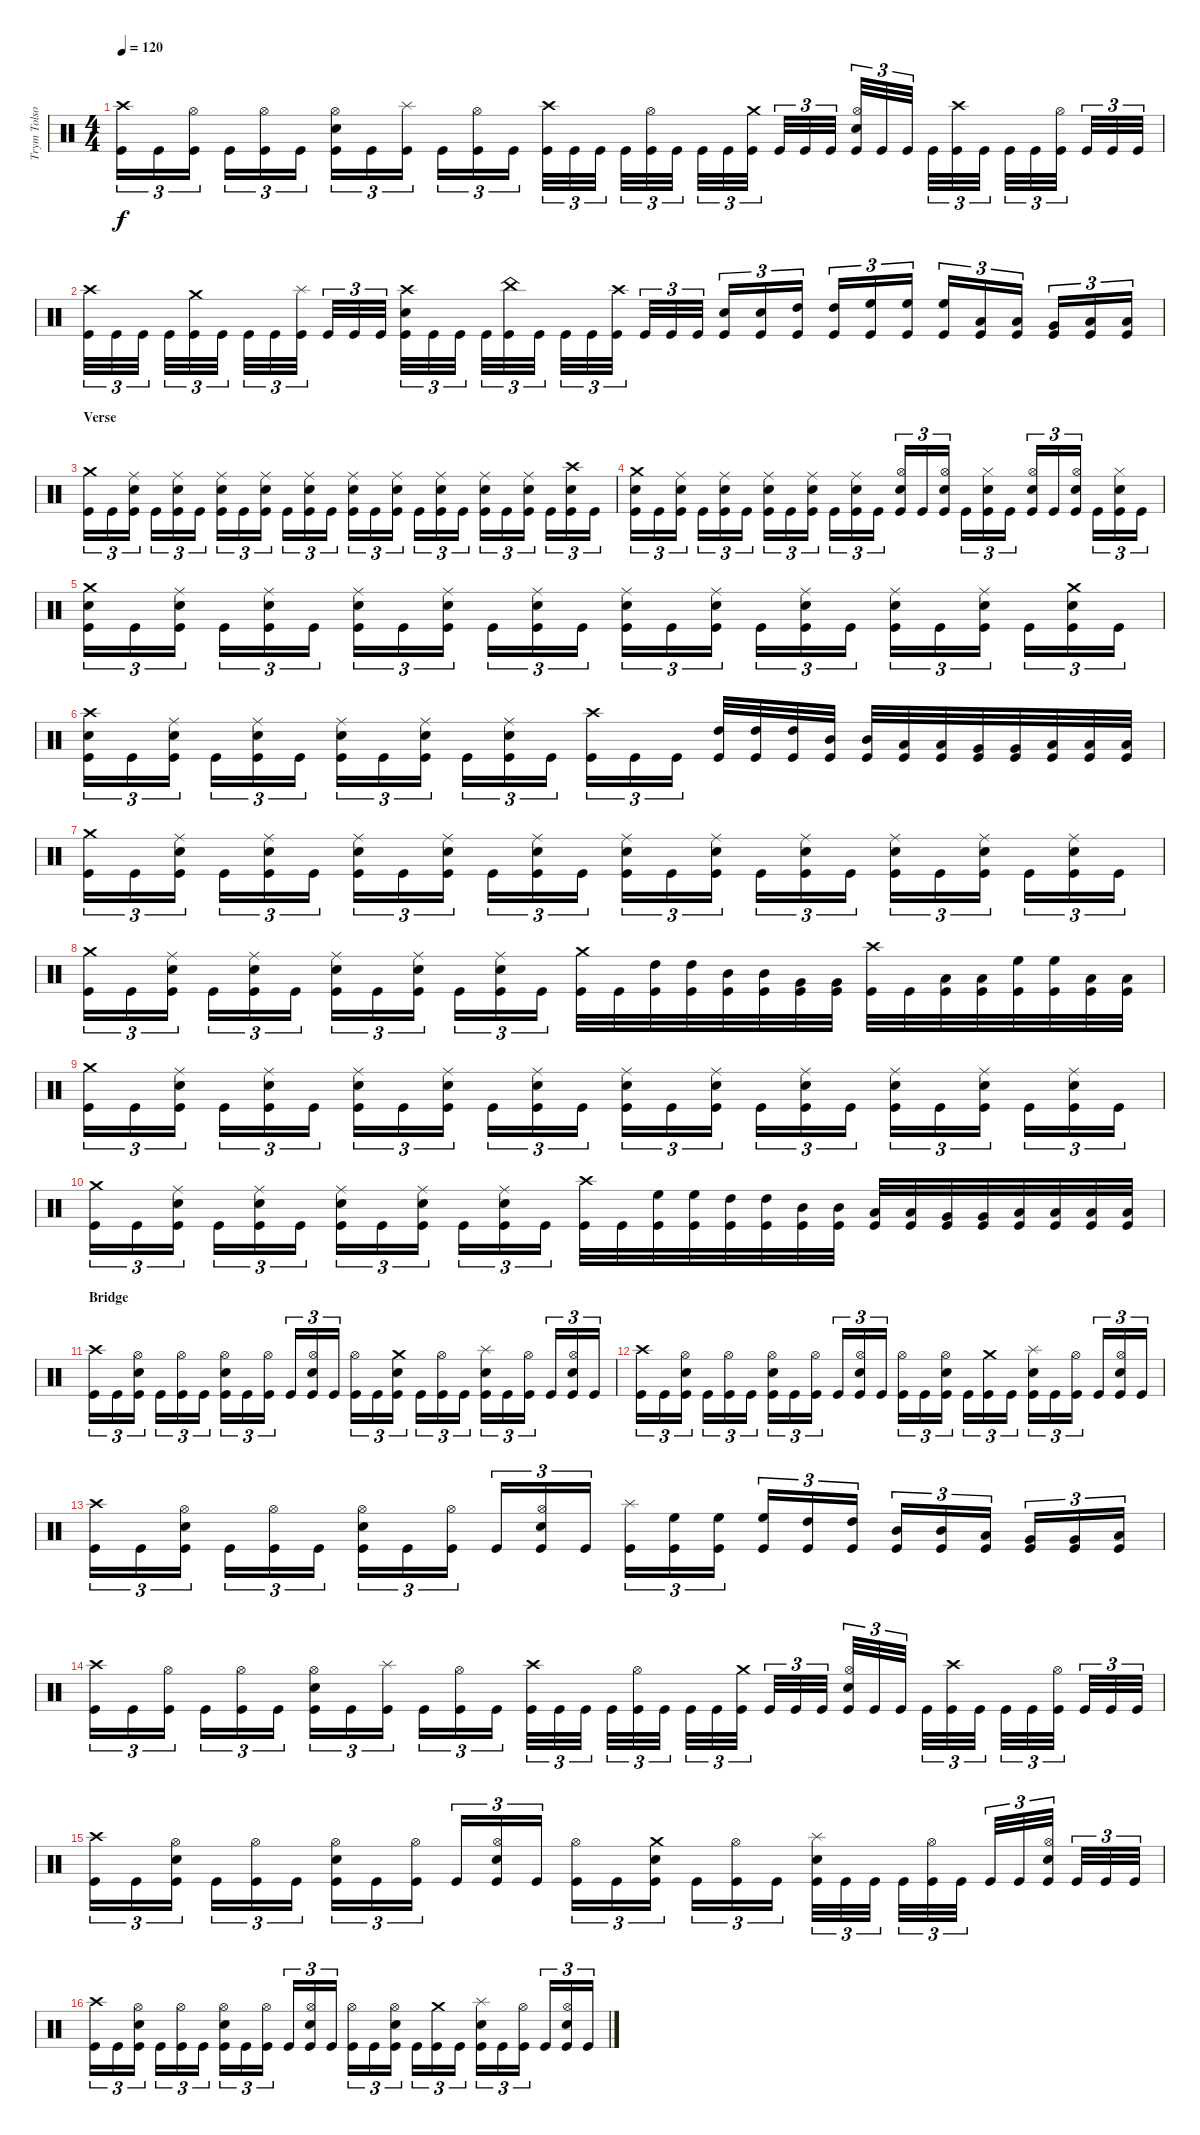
\track ("Trym Tolson" "Trym Tolso") {instrument percussion}
\staff {score}
\articulation defaults
\ts (4 4)
\tempo 120
\clef neutral
\ks c
("Crash high (hit)" "Kick (hit)").16{tu (3 2) dy f} "Kick (hit)".16{tu (3 2)} ("Hi-Hat (open)" "Kick (hit)").16{tu (3 2)} "Kick (hit)".16{tu (3 2)} ("Hi-Hat (open)" "Kick (hit)").16{tu (3 2)} "Kick (hit)".16{tu (3 2)} ("Hi-Hat (open)" "Electric Snare (hit)" "Kick (hit)").16{tu (3 2)} "Kick (hit)".16{tu (3 2)} ("Splash (hit)" "Kick (hit)").16{tu (3 2)} "Kick (hit)".16{tu (3 2)} ("Hi-Hat (open)" "Kick (hit)").16{tu (3 2)} "Kick (hit)".16{tu (3 2)} ("Crash high (hit)" "Kick (hit)").32{tu (3 2)} "Kick (hit)".32{tu (3 2)} "Kick (hit)".32{tu (3 2)} "Kick (hit)".32{tu (3 2)} ("Hi-Hat (open)" "Kick (hit)").32{tu (3 2)} "Kick (hit)".32{tu (3 2)} "Kick (hit)".32{tu (3 2)} "Kick (hit)".32{tu (3 2)} ("Crash medium (hit)" "Kick (hit)").32{tu (3 2)} "Kick (hit)".32{tu (3 2)} "Kick (hit)".32{tu (3 2)} "Kick (hit)".32{tu (3 2)} ("Hi-Hat (open)" "Electric Snare (hit)" "Kick (hit)").32{tu (3 2)} "Kick (hit)".32{tu (3 2)} "Kick (hit)".32{tu (3 2)} "Kick (hit)".32{tu (3 2)} ("Crash high (hit)" "Kick (hit)").32{tu (3 2)} "Kick (hit)".32{tu (3 2)} "Kick (hit)".32{tu (3 2)} "Kick (hit)".32{tu (3 2)} ("Hi-Hat (open)" "Kick (hit)").32{tu (3 2)} "Kick (hit)".32{tu (3 2)} "Kick (hit)".32{tu (3 2)} "Kick (hit)".32{tu (3 2)} |
("Crash high (hit)" "Kick (hit)").32{tu (3 2)} "Kick (hit)".32{tu (3 2)} "Kick (hit)".32{tu (3 2)} "Kick (hit)".32{tu (3 2)} ("Crash medium (hit)" "Kick (hit)").32{tu (3 2)} "Kick (hit)".32{tu (3 2)} "Kick (hit)".32{tu (3 2)} "Kick (hit)".32{tu (3 2)} ("Splash (hit)" "Kick (hit)").32{tu (3 2)} "Kick (hit)".32{tu (3 2)} "Kick (hit)".32{tu (3 2)} "Kick (hit)".32{tu (3 2)} ("Crash high (hit)" "Electric Snare (hit)" "Kick (hit)").32{tu (3 2)} "Kick (hit)".32{tu (3 2)} "Kick (hit)".32{tu (3 2)} "Kick (hit)".32{tu (3 2)} ("China (hit)" "Kick (hit)").32{tu (3 2)} "Kick (hit)".32{tu (3 2)} "Kick (hit)".32{tu (3 2)} "Kick (hit)".32{tu (3 2)} ("Crash high (hit)" "Kick (hit)").32{tu (3 2)} "Kick (hit)".32{tu (3 2)} "Kick (hit)".32{tu (3 2)} "Kick (hit)".32{tu (3 2)} ("Electric Snare (hit)" "Kick (hit)").16{tu (3 2)} ("Electric Snare (hit)" "Kick (hit)").16{tu (3 2)} ("High Tom (hit)" "Kick (hit)").16{tu (3 2)} ("High Tom (hit)" "Kick (hit)").16{tu (3 2)} ("High Floor Tom (hit)" "Kick (hit)").16{tu (3 2)} ("High Floor Tom (hit)" "Kick (hit)").16{tu (3 2)} ("High Floor Tom (hit)" "Kick (hit)").16{tu (3 2)} ("Low Tom (hit)" "Kick (hit)").16{tu (3 2)} ("Low Tom (hit)" "Kick (hit)").16{tu (3 2)} ("Very Low Tom (hit)" "Kick (hit)").16{tu (3 2)} ("Low Floor Tom (hit)" "Kick (hit)").16{tu (3 2)} ("Low Floor Tom (hit)" "Kick (hit)").16{tu (3 2)} |
\section ("" "Verse")
("Crash medium (hit)" "Kick (hit)").16{tu (3 2)} "Kick (hit)".16{tu (3 2)} ("Ride (middle)" "Electric Snare (hit)" "Kick (hit)").16{tu (3 2)} "Kick (hit)".16{tu (3 2)} ("Ride (middle)" "Electric Snare (hit)" "Kick (hit)").16{tu (3 2)} "Kick (hit)".16{tu (3 2)} ("Ride (middle)" "Electric Snare (hit)" "Kick (hit)").16{tu (3 2)} "Kick (hit)".16{tu (3 2)} ("Ride (middle)" "Electric Snare (hit)" "Kick (hit)").16{tu (3 2)} "Kick (hit)".16{tu (3 2)} ("Ride (middle)" "Electric Snare (hit)" "Kick (hit)").16{tu (3 2)} "Kick (hit)".16{tu (3 2)} ("Ride (middle)" "Electric Snare (hit)" "Kick (hit)").16{tu (3 2)} "Kick (hit)".16{tu (3 2)} ("Ride (middle)" "Electric Snare (hit)" "Kick (hit)").16{tu (3 2)} "Kick (hit)".16{tu (3 2)} ("Ride (middle)" "Electric Snare (hit)" "Kick (hit)").16{tu (3 2)} "Kick (hit)".16{tu (3 2)} ("Ride (middle)" "Electric Snare (hit)" "Kick (hit)").16{tu (3 2)} "Kick (hit)".16{tu (3 2)} ("Ride (middle)" "Electric Snare (hit)" "Kick (hit)").16{tu (3 2)} "Kick (hit)".16{tu (3 2)} ("Crash high (hit)" "Electric Snare (hit)" "Kick (hit)").16{tu (3 2)} "Kick (hit)".16{tu (3 2)} |
("Crash medium (hit)" "Electric Snare (hit)" "Kick (hit)").16{tu (3 2)} "Kick (hit)".16{tu (3 2)} ("Ride (middle)" "Electric Snare (hit)" "Kick (hit)").16{tu (3 2)} "Kick (hit)".16{tu (3 2)} ("Ride (middle)" "Electric Snare (hit)" "Kick (hit)").16{tu (3 2)} "Kick (hit)".16{tu (3 2)} ("Ride (middle)" "Electric Snare (hit)" "Kick (hit)").16{tu (3 2)} "Kick (hit)".16{tu (3 2)} ("Ride (middle)" "Electric Snare (hit)" "Kick (hit)").16{tu (3 2)} "Kick (hit)".16{tu (3 2)} ("Ride (middle)" "Electric Snare (hit)" "Kick (hit)").16{tu (3 2)} "Kick (hit)".16{tu (3 2)} ("Hi-Hat (open)" "Electric Snare (hit)" "Kick (hit)").16{tu (3 2)} "Kick (hit)".16{tu (3 2)} ("Hi-Hat (open)" "Electric Snare (hit)" "Kick (hit)").16{tu (3 2)} "Kick (hit)".16{tu (3 2)} ("Hi-Hat (closed)" "Electric Snare (hit)" "Kick (hit)").16{tu (3 2)} "Kick (hit)".16{tu (3 2)} ("Hi-Hat (open)" "Electric Snare (hit)" "Kick (hit)").16{tu (3 2)} "Kick (hit)".16{tu (3 2)} ("Hi-Hat (open)" "Electric Snare (hit)" "Kick (hit)").16{tu (3 2)} "Kick (hit)".16{tu (3 2)} ("Hi-Hat (closed)" "Electric Snare (hit)" "Kick (hit)").16{tu (3 2)} "Kick (hit)".16{tu (3 2)} |
("Crash medium (hit)" "Electric Snare (hit)" "Kick (hit)").16{tu (3 2)} "Kick (hit)".16{tu (3 2)} ("Ride (middle)" "Electric Snare (hit)" "Kick (hit)").16{tu (3 2)} "Kick (hit)".16{tu (3 2)} ("Ride (middle)" "Electric Snare (hit)" "Kick (hit)").16{tu (3 2)} "Kick (hit)".16{tu (3 2)} ("Ride (middle)" "Electric Snare (hit)" "Kick (hit)").16{tu (3 2)} "Kick (hit)".16{tu (3 2)} ("Ride (middle)" "Electric Snare (hit)" "Kick (hit)").16{tu (3 2)} "Kick (hit)".16{tu (3 2)} ("Ride (middle)" "Electric Snare (hit)" "Kick (hit)").16{tu (3 2)} "Kick (hit)".16{tu (3 2)} ("Ride (middle)" "Electric Snare (hit)" "Kick (hit)").16{tu (3 2)} "Kick (hit)".16{tu (3 2)} ("Ride (middle)" "Electric Snare (hit)" "Kick (hit)").16{tu (3 2)} "Kick (hit)".16{tu (3 2)} ("Ride (middle)" "Electric Snare (hit)" "Kick (hit)").16{tu (3 2)} "Kick (hit)".16{tu (3 2)} ("Ride (middle)" "Electric Snare (hit)" "Kick (hit)").16{tu (3 2)} "Kick (hit)".16{tu (3 2)} ("Ride (middle)" "Electric Snare (hit)" "Kick (hit)").16{tu (3 2)} "Kick (hit)".16{tu (3 2)} ("Crash medium (hit)" "Electric Snare (hit)" "Kick (hit)").16{tu (3 2)} "Kick (hit)".16{tu (3 2)} |
("Crash high (hit)" "Electric Snare (hit)" "Kick (hit)").16{tu (3 2)} "Kick (hit)".16{tu (3 2)} ("Ride (middle)" "Electric Snare (hit)" "Kick (hit)").16{tu (3 2)} "Kick (hit)".16{tu (3 2)} ("Ride (middle)" "Electric Snare (hit)" "Kick (hit)").16{tu (3 2)} "Kick (hit)".16{tu (3 2)} ("Ride (middle)" "Electric Snare (hit)" "Kick (hit)").16{tu (3 2)} "Kick (hit)".16{tu (3 2)} ("Ride (middle)" "Electric Snare (hit)" "Kick (hit)").16{tu (3 2)} "Kick (hit)".16{tu (3 2)} ("Ride (middle)" "Electric Snare (hit)" "Kick (hit)").16{tu (3 2)} "Kick (hit)".16{tu (3 2)} ("Crash high (hit)" "Kick (hit)").16{tu (3 2)} "Kick (hit)".16{tu (3 2)} "Kick (hit)".16{tu (3 2)} ("High Tom (hit)" "Kick (hit)").32 ("High Tom (hit)" "Kick (hit)").32 ("High Tom (hit)" "Kick (hit)").32 ("Mid Tom (hit)" "Kick (hit)").32 ("Mid Tom (hit)" "Kick (hit)").32 ("Low Tom (hit)" "Kick (hit)").32 ("Low Tom (hit)" "Kick (hit)").32 ("Very Low Tom (hit)" "Kick (hit)").32 ("Very Low Tom (hit)" "Kick (hit)").32 ("Low Floor Tom (hit)" "Kick (hit)").32 ("Low Floor Tom (hit)" "Kick (hit)").32 ("Low Floor Tom (hit)" "Kick (hit)").32 |
("Crash medium (hit)" "Kick (hit)").16{tu (3 2)} "Kick (hit)".16{tu (3 2)} ("Ride (middle)" "Electric Snare (hit)" "Kick (hit)").16{tu (3 2)} "Kick (hit)".16{tu (3 2)} ("Ride (middle)" "Electric Snare (hit)" "Kick (hit)").16{tu (3 2)} "Kick (hit)".16{tu (3 2)} ("Ride (middle)" "Electric Snare (hit)" "Kick (hit)").16{tu (3 2)} "Kick (hit)".16{tu (3 2)} ("Ride (middle)" "Electric Snare (hit)" "Kick (hit)").16{tu (3 2)} "Kick (hit)".16{tu (3 2)} ("Ride (middle)" "Electric Snare (hit)" "Kick (hit)").16{tu (3 2)} "Kick (hit)".16{tu (3 2)} ("Ride (middle)" "Electric Snare (hit)" "Kick (hit)").16{tu (3 2)} "Kick (hit)".16{tu (3 2)} ("Ride (middle)" "Electric Snare (hit)" "Kick (hit)").16{tu (3 2)} "Kick (hit)".16{tu (3 2)} ("Ride (middle)" "Electric Snare (hit)" "Kick (hit)").16{tu (3 2)} "Kick (hit)".16{tu (3 2)} ("Ride (middle)" "Electric Snare (hit)" "Kick (hit)").16{tu (3 2)} "Kick (hit)".16{tu (3 2)} ("Ride (middle)" "Electric Snare (hit)" "Kick (hit)").16{tu (3 2)} "Kick (hit)".16{tu (3 2)} ("Ride (middle)" "Electric Snare (hit)" "Kick (hit)").16{tu (3 2)} "Kick (hit)".16{tu (3 2)} |
("Crash medium (hit)" "Kick (hit)").16{tu (3 2)} "Kick (hit)".16{tu (3 2)} ("Ride (middle)" "Electric Snare (hit)" "Kick (hit)").16{tu (3 2)} "Kick (hit)".16{tu (3 2)} ("Ride (middle)" "Electric Snare (hit)" "Kick (hit)").16{tu (3 2)} "Kick (hit)".16{tu (3 2)} ("Ride (middle)" "Electric Snare (hit)" "Kick (hit)").16{tu (3 2)} "Kick (hit)".16{tu (3 2)} ("Ride (middle)" "Electric Snare (hit)" "Kick (hit)").16{tu (3 2)} "Kick (hit)".16{tu (3 2)} ("Ride (middle)" "Electric Snare (hit)" "Kick (hit)").16{tu (3 2)} "Kick (hit)".16{tu (3 2)} ("Crash medium (hit)" "Kick (hit)").32 "Kick (hit)".32 ("High Tom (hit)" "Kick (hit)").32 ("High Tom (hit)" "Kick (hit)").32 ("Mid Tom (hit)" "Kick (hit)").32 ("Mid Tom (hit)" "Kick (hit)").32 ("Very Low Tom (hit)" "Kick (hit)").32 ("Very Low Tom (hit)" "Kick (hit)").32 ("Crash high (hit)" "Kick (hit)").32 "Kick (hit)".32 ("Low Tom (hit)" "Kick (hit)").32 ("Low Tom (hit)" "Kick (hit)").32 ("High Floor Tom (hit)" "Kick (hit)").32 ("High Floor Tom (hit)" "Kick (hit)").32 ("Low Floor Tom (hit)" "Kick (hit)").32 ("Low Floor Tom (hit)" "Kick (hit)").32 |
("Crash medium (hit)" "Kick (hit)").16{tu (3 2)} "Kick (hit)".16{tu (3 2)} ("Ride (middle)" "Electric Snare (hit)" "Kick (hit)").16{tu (3 2)} "Kick (hit)".16{tu (3 2)} ("Ride (middle)" "Electric Snare (hit)" "Kick (hit)").16{tu (3 2)} "Kick (hit)".16{tu (3 2)} ("Ride (middle)" "Electric Snare (hit)" "Kick (hit)").16{tu (3 2)} "Kick (hit)".16{tu (3 2)} ("Ride (middle)" "Electric Snare (hit)" "Kick (hit)").16{tu (3 2)} "Kick (hit)".16{tu (3 2)} ("Ride (middle)" "Electric Snare (hit)" "Kick (hit)").16{tu (3 2)} "Kick (hit)".16{tu (3 2)} ("Ride (middle)" "Electric Snare (hit)" "Kick (hit)").16{tu (3 2)} "Kick (hit)".16{tu (3 2)} ("Ride (middle)" "Electric Snare (hit)" "Kick (hit)").16{tu (3 2)} "Kick (hit)".16{tu (3 2)} ("Ride (middle)" "Electric Snare (hit)" "Kick (hit)").16{tu (3 2)} "Kick (hit)".16{tu (3 2)} ("Ride (middle)" "Electric Snare (hit)" "Kick (hit)").16{tu (3 2)} "Kick (hit)".16{tu (3 2)} ("Ride (middle)" "Electric Snare (hit)" "Kick (hit)").16{tu (3 2)} "Kick (hit)".16{tu (3 2)} ("Ride (middle)" "Electric Snare (hit)" "Kick (hit)").16{tu (3 2)} "Kick (hit)".16{tu (3 2)} |
("Crash medium (hit)" "Kick (hit)").16{tu (3 2)} "Kick (hit)".16{tu (3 2)} ("Ride (middle)" "Electric Snare (hit)" "Kick (hit)").16{tu (3 2)} "Kick (hit)".16{tu (3 2)} ("Ride (middle)" "Electric Snare (hit)" "Kick (hit)").16{tu (3 2)} "Kick (hit)".16{tu (3 2)} ("Ride (middle)" "Electric Snare (hit)" "Kick (hit)").16{tu (3 2)} "Kick (hit)".16{tu (3 2)} ("Ride (middle)" "Electric Snare (hit)" "Kick (hit)").16{tu (3 2)} "Kick (hit)".16{tu (3 2)} ("Ride (middle)" "Electric Snare (hit)" "Kick (hit)").16{tu (3 2)} "Kick (hit)".16{tu (3 2)} ("Crash high (hit)" "Kick (hit)").32 "Kick (hit)".32 ("High Floor Tom (hit)" "Kick (hit)").32 ("High Floor Tom (hit)" "Kick (hit)").32 ("High Tom (hit)" "Kick (hit)").32 ("High Tom (hit)" "Kick (hit)").32 ("Mid Tom (hit)" "Kick (hit)").32 ("Mid Tom (hit)" "Kick (hit)").32 ("Low Tom (hit)" "Kick (hit)").32 ("Low Tom (hit)" "Kick (hit)").32 ("Very Low Tom (hit)" "Kick (hit)").32 ("Very Low Tom (hit)" "Kick (hit)").32 ("Low Floor Tom (hit)" "Kick (hit)").32 ("Low Floor Tom (hit)" "Kick (hit)").32 ("Low Floor Tom (hit)" "Kick (hit)").32 ("Low Floor Tom (hit)" "Kick (hit)").32 |
\section ("" "Bridge")
("Crash high (hit)" "Kick (hit)").16{tu (3 2)} "Kick (hit)".16{tu (3 2)} ("Hi-Hat (open)" "Electric Snare (hit)" "Kick (hit)").16{tu (3 2)} "Kick (hit)".16{tu (3 2)} ("Hi-Hat (open)" "Kick (hit)").16{tu (3 2)} "Kick (hit)".16{tu (3 2)} ("Hi-Hat (open)" "Electric Snare (hit)" "Kick (hit)").16{tu (3 2)} "Kick (hit)".16{tu (3 2)} ("Hi-Hat (open)" "Kick (hit)").16{tu (3 2)} "Kick (hit)".16{tu (3 2)} ("Hi-Hat (open)" "Electric Snare (hit)" "Kick (hit)").16{tu (3 2)} "Kick (hit)".16{tu (3 2)} ("Hi-Hat (open)" "Kick (hit)").16{tu (3 2)} "Kick (hit)".16{tu (3 2)} ("Crash medium (hit)" "Electric Snare (hit)" "Kick (hit)").16{tu (3 2)} "Kick (hit)".16{tu (3 2)} ("Hi-Hat (open)" "Kick (hit)").16{tu (3 2)} "Kick (hit)".16{tu (3 2)} ("Splash (hit)" "Electric Snare (hit)" "Kick (hit)").16{tu (3 2)} "Kick (hit)".16{tu (3 2)} ("Hi-Hat (open)" "Kick (hit)").16{tu (3 2)} "Kick (hit)".16{tu (3 2)} ("Hi-Hat (open)" "Electric Snare (hit)" "Kick (hit)").16{tu (3 2)} "Kick (hit)".16{tu (3 2)} |
("Crash high (hit)" "Kick (hit)").16{tu (3 2)} "Kick (hit)".16{tu (3 2)} ("Hi-Hat (open)" "Electric Snare (hit)" "Kick (hit)").16{tu (3 2)} "Kick (hit)".16{tu (3 2)} ("Hi-Hat (open)" "Kick (hit)").16{tu (3 2)} "Kick (hit)".16{tu (3 2)} ("Hi-Hat (open)" "Electric Snare (hit)" "Kick (hit)").16{tu (3 2)} "Kick (hit)".16{tu (3 2)} ("Hi-Hat (open)" "Kick (hit)").16{tu (3 2)} "Kick (hit)".16{tu (3 2)} ("Hi-Hat (open)" "Electric Snare (hit)" "Kick (hit)").16{tu (3 2)} "Kick (hit)".16{tu (3 2)} ("Hi-Hat (open)" "Kick (hit)").16{tu (3 2)} "Kick (hit)".16{tu (3 2)} ("Hi-Hat (open)" "Electric Snare (hit)" "Kick (hit)").16{tu (3 2)} "Kick (hit)".16{tu (3 2)} ("Crash medium (hit)" "Kick (hit)").16{tu (3 2)} "Kick (hit)".16{tu (3 2)} ("Splash (hit)" "Electric Snare (hit)" "Kick (hit)").16{tu (3 2)} "Kick (hit)".16{tu (3 2)} ("Hi-Hat (open)" "Kick (hit)").16{tu (3 2)} "Kick (hit)".16{tu (3 2)} ("Hi-Hat (open)" "Electric Snare (hit)" "Kick (hit)").16{tu (3 2)} "Kick (hit)".16{tu (3 2)} |
("Crash high (hit)" "Kick (hit)").16{tu (3 2)} "Kick (hit)".16{tu (3 2)} ("Hi-Hat (open)" "Electric Snare (hit)" "Kick (hit)").16{tu (3 2)} "Kick (hit)".16{tu (3 2)} ("Hi-Hat (open)" "Kick (hit)").16{tu (3 2)} "Kick (hit)".16{tu (3 2)} ("Hi-Hat (open)" "Electric Snare (hit)" "Kick (hit)").16{tu (3 2)} "Kick (hit)".16{tu (3 2)} ("Hi-Hat (open)" "Kick (hit)").16{tu (3 2)} "Kick (hit)".16{tu (3 2)} ("Hi-Hat (open)" "Electric Snare (hit)" "Kick (hit)").16{tu (3 2)} "Kick (hit)".16{tu (3 2)} ("Splash (hit)" "Kick (hit)").16{tu (3 2)} ("High Floor Tom (hit)" "Kick (hit)").16{tu (3 2)} ("High Floor Tom (hit)" "Kick (hit)").16{tu (3 2)} ("High Floor Tom (hit)" "Kick (hit)").16{tu (3 2)} ("High Tom (hit)" "Kick (hit)").16{tu (3 2)} ("High Tom (hit)" "Kick (hit)").16{tu (3 2)} ("Mid Tom (hit)" "Kick (hit)").16{tu (3 2)} ("Mid Tom (hit)" "Kick (hit)").16{tu (3 2)} ("Low Tom (hit)" "Kick (hit)").16{tu (3 2)} ("Very Low Tom (hit)" "Kick (hit)").16{tu (3 2)} ("Very Low Tom (hit)" "Kick (hit)").16{tu (3 2)} ("Low Floor Tom (hit)" "Kick (hit)").16{tu (3 2)} |
("Crash high (hit)" "Kick (hit)").16{tu (3 2)} "Kick (hit)".16{tu (3 2)} ("Hi-Hat (open)" "Kick (hit)").16{tu (3 2)} "Kick (hit)".16{tu (3 2)} ("Hi-Hat (open)" "Kick (hit)").16{tu (3 2)} "Kick (hit)".16{tu (3 2)} ("Hi-Hat (open)" "Electric Snare (hit)" "Kick (hit)").16{tu (3 2)} "Kick (hit)".16{tu (3 2)} ("Splash (hit)" "Kick (hit)").16{tu (3 2)} "Kick (hit)".16{tu (3 2)} ("Hi-Hat (open)" "Kick (hit)").16{tu (3 2)} "Kick (hit)".16{tu (3 2)} ("Crash high (hit)" "Kick (hit)").32{tu (3 2)} "Kick (hit)".32{tu (3 2)} "Kick (hit)".32{tu (3 2)} "Kick (hit)".32{tu (3 2)} ("Hi-Hat (open)" "Kick (hit)").32{tu (3 2)} "Kick (hit)".32{tu (3 2)} "Kick (hit)".32{tu (3 2)} "Kick (hit)".32{tu (3 2)} ("Crash medium (hit)" "Kick (hit)").32{tu (3 2)} "Kick (hit)".32{tu (3 2)} "Kick (hit)".32{tu (3 2)} "Kick (hit)".32{tu (3 2)} ("Hi-Hat (open)" "Electric Snare (hit)" "Kick (hit)").32{tu (3 2)} "Kick (hit)".32{tu (3 2)} "Kick (hit)".32{tu (3 2)} "Kick (hit)".32{tu (3 2)} ("Crash high (hit)" "Kick (hit)").32{tu (3 2)} "Kick (hit)".32{tu (3 2)} "Kick (hit)".32{tu (3 2)} "Kick (hit)".32{tu (3 2)} ("Hi-Hat (open)" "Kick (hit)").32{tu (3 2)} "Kick (hit)".32{tu (3 2)} "Kick (hit)".32{tu (3 2)} "Kick (hit)".32{tu (3 2)} |
("Crash high (hit)" "Kick (hit)").16{tu (3 2)} "Kick (hit)".16{tu (3 2)} ("Hi-Hat (open)" "Electric Snare (hit)" "Kick (hit)").16{tu (3 2)} "Kick (hit)".16{tu (3 2)} ("Hi-Hat (open)" "Kick (hit)").16{tu (3 2)} "Kick (hit)".16{tu (3 2)} ("Hi-Hat (open)" "Electric Snare (hit)" "Kick (hit)").16{tu (3 2)} "Kick (hit)".16{tu (3 2)} ("Hi-Hat (open)" "Kick (hit)").16{tu (3 2)} "Kick (hit)".16{tu (3 2)} ("Hi-Hat (open)" "Electric Snare (hit)" "Kick (hit)").16{tu (3 2)} "Kick (hit)".16{tu (3 2)} ("Hi-Hat (open)" "Kick (hit)").16{tu (3 2)} "Kick (hit)".16{tu (3 2)} ("Crash medium (hit)" "Electric Snare (hit)" "Kick (hit)").16{tu (3 2)} "Kick (hit)".16{tu (3 2)} ("Hi-Hat (open)" "Kick (hit)").16{tu (3 2)} "Kick (hit)".16{tu (3 2)} ("Splash (hit)" "Electric Snare (hit)" "Kick (hit)").32{tu (3 2)} "Kick (hit)".32{tu (3 2)} "Kick (hit)".32{tu (3 2)} "Kick (hit)".32{tu (3 2)} ("Hi-Hat (open)" "Kick (hit)").32{tu (3 2)} "Kick (hit)".32{tu (3 2)} "Kick (hit)".32{tu (3 2)} "Kick (hit)".32{tu (3 2)} ("Hi-Hat (open)" "Electric Snare (hit)" "Kick (hit)").32{tu (3 2)} "Kick (hit)".32{tu (3 2)} "Kick (hit)".32{tu (3 2)} "Kick (hit)".32{tu (3 2)} |
("Crash high (hit)" "Kick (hit)").16{tu (3 2)} "Kick (hit)".16{tu (3 2)} ("Hi-Hat (open)" "Electric Snare (hit)" "Kick (hit)").16{tu (3 2)} "Kick (hit)".16{tu (3 2)} ("Hi-Hat (open)" "Kick (hit)").16{tu (3 2)} "Kick (hit)".16{tu (3 2)} ("Hi-Hat (open)" "Electric Snare (hit)" "Kick (hit)").16{tu (3 2)} "Kick (hit)".16{tu (3 2)} ("Hi-Hat (open)" "Kick (hit)").16{tu (3 2)} "Kick (hit)".16{tu (3 2)} ("Hi-Hat (open)" "Electric Snare (hit)" "Kick (hit)").16{tu (3 2)} "Kick (hit)".16{tu (3 2)} ("Hi-Hat (open)" "Kick (hit)").16{tu (3 2)} "Kick (hit)".16{tu (3 2)} ("Hi-Hat (open)" "Electric Snare (hit)" "Kick (hit)").16{tu (3 2)} "Kick (hit)".16{tu (3 2)} ("Crash medium (hit)" "Kick (hit)").16{tu (3 2)} "Kick (hit)".16{tu (3 2)} ("Splash (hit)" "Electric Snare (hit)" "Kick (hit)").16{tu (3 2)} "Kick (hit)".16{tu (3 2)} ("Hi-Hat (open)" "Kick (hit)").16{tu (3 2)} "Kick (hit)".16{tu (3 2)} ("Hi-Hat (open)" "Electric Snare (hit)" "Kick (hit)").16{tu (3 2)} "Kick (hit)".16{tu (3 2)}
